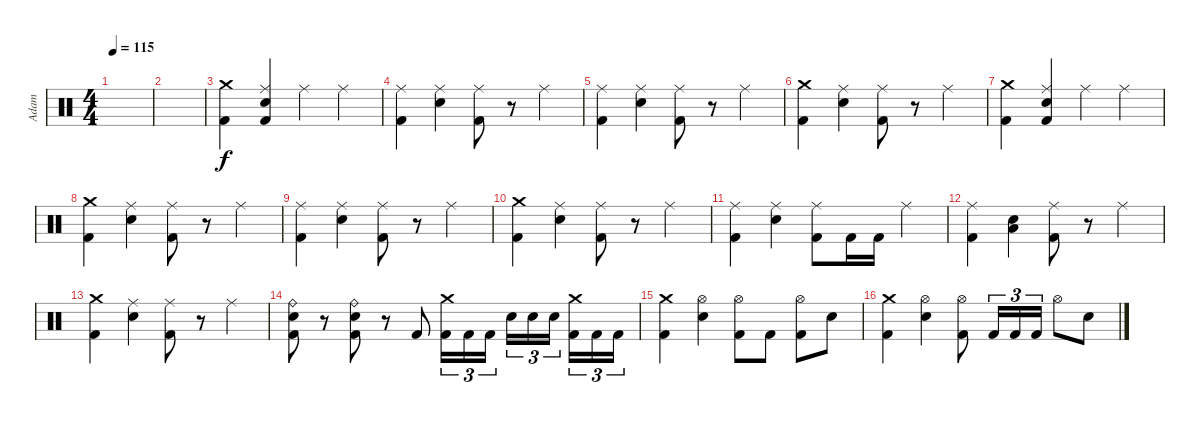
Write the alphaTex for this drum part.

\track ("Adam" "Adam") {instrument percussion}
\staff {score}
\articulation defaults
\ts (4 4)
\tempo 115
\clef neutral
\ks c
|
|
("Crash medium (hit)" "Kick (hit) 2").4 ("Ride (middle)" "Electric Snare (hit)" "Kick (hit) 2").4 "Ride (middle)".4 "Ride (middle)".4 |
("Ride (middle)" "Kick (hit) 2").4 ("Ride (middle)" "Electric Snare (hit)").4 ("Ride (middle)" "Kick (hit) 2").8 r.8 "Ride (middle)".4 |
("Ride (middle)" "Kick (hit) 2").4 ("Ride (middle)" "Electric Snare (hit)").4 ("Ride (middle)" "Kick (hit) 2").8 r.8 "Ride (middle)".4 |
("Crash medium (hit)" "Kick (hit) 2").4 ("Ride (middle)" "Electric Snare (hit)").4 ("Ride (middle)" "Kick (hit) 2").8 r.8 "Ride (middle)".4 |
("Crash medium (hit)" "Kick (hit) 2").4 ("Ride (middle)" "Electric Snare (hit)" "Kick (hit) 2").4 "Ride (middle)".4 "Ride (middle)".4 |
("Crash medium (hit)" "Kick (hit) 2").4 ("Ride (middle)" "Electric Snare (hit)").4 ("Ride (middle)" "Kick (hit) 2").8 r.8 "Ride (middle)".4 |
("Ride (middle)" "Kick (hit) 2").4 ("Ride (middle)" "Electric Snare (hit)").4 ("Ride (middle)" "Kick (hit) 2").8 r.8 "Ride (middle)".4 |
("Crash medium (hit)" "Kick (hit) 2").4 ("Ride (middle)" "Electric Snare (hit)").4 ("Ride (middle)" "Kick (hit) 2").8 r.8 "Ride (middle)".4 |
("Ride (middle)" "Kick (hit) 2").4 ("Ride (middle)" "Electric Snare (hit)").4 ("Ride (middle)" "Kick (hit) 2").8 "Kick (hit) 2".16 "Kick (hit) 2".16 "Ride (middle)".4 |
("Ride (middle)" "Kick (hit) 2").4 ("Low Floor Tom (hit)" "Electric Snare (hit)").4 ("Ride (middle)" "Kick (hit) 2").8 r.8 "Ride (middle)".4 |
("Crash medium (hit)" "Kick (hit) 2").4 ("Ride (middle)" "Electric Snare (hit)").4 ("Ride (middle)" "Kick (hit) 2").8 r.8 "Ride (middle)".4 |
("Ride (bell)" "Electric Snare (hit)" "Kick (hit) 2").8 r.8 ("Ride (bell)" "Electric Snare (hit)" "Kick (hit) 2").8 r.8 "Kick (hit) 2".8 ("Crash medium (hit)" "Kick (hit) 2").16{tu (3 2)} "Kick (hit) 2".16{tu (3 2)} "Kick (hit) 2".16{tu (3 2)} "Electric Snare (hit)".16{tu (3 2)} "Electric Snare (hit)".16{tu (3 2)} "Electric Snare (hit)".16{tu (3 2)} ("Crash medium (hit)" "Kick (hit) 2").16{tu (3 2)} "Kick (hit) 2".16{tu (3 2)} "Kick (hit) 2".16{tu (3 2)} |
("Crash medium (hit)" "Kick (hit) 2").4 ("Hi-Hat (open)" "Electric Snare (hit)").4 ("Hi-Hat (open)" "Kick (hit) 2").8 "Kick (hit) 2".8 ("Hi-Hat (open)" "Kick (hit) 2").8 "Electric Snare (hit)".8 |
("Crash medium (hit)" "Kick (hit) 2").4 ("Hi-Hat (open)" "Electric Snare (hit)").4 ("Hi-Hat (open)" "Kick (hit) 2").8 "Kick (hit) 2".16{tu (3 2)} "Kick (hit) 2".16{tu (3 2)} "Kick (hit) 2".16{tu (3 2)} "Hi-Hat (open)".8 "Electric Snare (hit)".8
